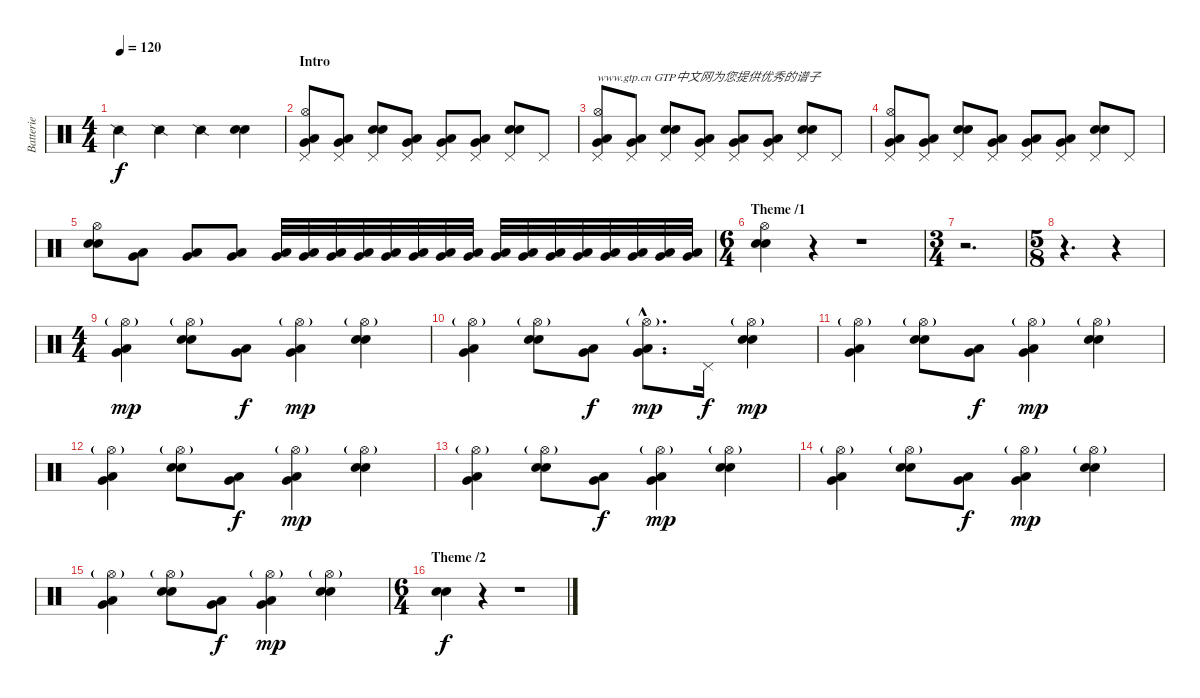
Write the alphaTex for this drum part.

\track ("Batterie" "Batterie") {instrument percussion}
\staff {score}
\articulation defaults
\ts (4 4)
\tempo 120
\clef neutral
\ks c "Snare (side stick) 2".4{dy f} "Snare (side stick) 2".4 "Snare (side stick) 2".4
("Electric Snare (hit)" "Electric Snare (hit)").4 |
\section ("" "Intro")
("Pedal Hi-Hat (hit)" "Hi-Hat (open)" "Very Low Tom (hit)" "Low Floor Tom (hit)").8 ("Pedal Hi-Hat (hit)" "Very Low Tom (hit)" "Low Floor Tom (hit)").8 ("Pedal Hi-Hat (hit)" "Electric Snare (hit)" "Electric Snare (hit)").8 ("Pedal Hi-Hat (hit)" "Very Low Tom (hit)" "Low Floor Tom (hit)").8 ("Pedal Hi-Hat (hit)" "Very Low Tom (hit)" "Low Floor Tom (hit)").8 ("Pedal Hi-Hat (hit)" "Very Low Tom (hit)" "Low Floor Tom (hit)").8 ("Pedal Hi-Hat (hit)" "Electric Snare (hit)" "Electric Snare (hit)").8 "Pedal Hi-Hat (hit)".8 |
("Pedal Hi-Hat (hit)" "Hi-Hat (open)" "Very Low Tom (hit)" "Low Floor Tom (hit)").8{txt "www.gtp.cn GTP中文网为您提供优秀的谱子"} ("Pedal Hi-Hat (hit)" "Very Low Tom (hit)" "Low Floor Tom (hit)").8 ("Pedal Hi-Hat (hit)" "Electric Snare (hit)" "Electric Snare (hit)").8 ("Pedal Hi-Hat (hit)" "Very Low Tom (hit)" "Low Floor Tom (hit)").8 ("Pedal Hi-Hat (hit)" "Very Low Tom (hit)" "Low Floor Tom (hit)").8 ("Pedal Hi-Hat (hit)" "Very Low Tom (hit)" "Low Floor Tom (hit)").8 ("Pedal Hi-Hat (hit)" "Electric Snare (hit)" "Electric Snare (hit)").8 "Pedal Hi-Hat (hit)".8 |
("Pedal Hi-Hat (hit)" "Hi-Hat (open)" "Very Low Tom (hit)" "Low Floor Tom (hit)").8 ("Pedal Hi-Hat (hit)" "Very Low Tom (hit)" "Low Floor Tom (hit)").8 ("Pedal Hi-Hat (hit)" "Electric Snare (hit)" "Electric Snare (hit)").8 ("Pedal Hi-Hat (hit)" "Very Low Tom (hit)" "Low Floor Tom (hit)").8 ("Pedal Hi-Hat (hit)" "Very Low Tom (hit)" "Low Floor Tom (hit)").8 ("Pedal Hi-Hat (hit)" "Very Low Tom (hit)" "Low Floor Tom (hit)").8 ("Pedal Hi-Hat (hit)" "Electric Snare (hit)" "Electric Snare (hit)").8 "Pedal Hi-Hat (hit)".8 |
("Hi-Hat (open)" "Electric Snare (hit)" "Electric Snare (hit)").8 ("Very Low Tom (hit)" "Low Floor Tom (hit)").8 ("Very Low Tom (hit)" "Low Floor Tom (hit)").8 ("Very Low Tom (hit)" "Low Floor Tom (hit)").8 ("Very Low Tom (hit)" "Low Floor Tom (hit)").32 ("Very Low Tom (hit)" "Low Floor Tom (hit)").32 ("Very Low Tom (hit)" "Low Floor Tom (hit)").32 ("Very Low Tom (hit)" "Low Floor Tom (hit)").32 ("Very Low Tom (hit)" "Low Floor Tom (hit)").32 ("Very Low Tom (hit)" "Low Floor Tom (hit)").32 ("Very Low Tom (hit)" "Low Floor Tom (hit)").32 ("Very Low Tom (hit)" "Low Floor Tom (hit)").32 ("Very Low Tom (hit)" "Low Floor Tom (hit)").32 ("Very Low Tom (hit)" "Low Floor Tom (hit)").32 ("Very Low Tom (hit)" "Low Floor Tom (hit)").32 ("Very Low Tom (hit)" "Low Floor Tom (hit)").32 ("Very Low Tom (hit)" "Low Floor Tom (hit)").32 ("Very Low Tom (hit)" "Low Floor Tom (hit)").32 ("Very Low Tom (hit)" "Low Floor Tom (hit)").32 ("Very Low Tom (hit)" "Low Floor Tom (hit)").32 |
\ts (6 4)
\section ("" "Theme /1")
("Hi-Hat (open)" "Electric Snare (hit)" "Electric Snare (hit)").4 r.4 r.1 |
\ts (3 4)
r.2{d} |
\ts (5 8)
r.4{d} r.4 |
\ts (4 4)
("Hi-Hat (open)"{g} "Very Low Tom (hit)" "Low Floor Tom (hit)").4{dy mp} ("Hi-Hat (open)"{g} "Electric Snare (hit)" "Electric Snare (hit)").8 ("Very Low Tom (hit)" "Low Floor Tom (hit)").8{dy f} ("Hi-Hat (open)"{g} "Very Low Tom (hit)" "Low Floor Tom (hit)").4{dy mp} ("Hi-Hat (open)"{g} "Electric Snare (hit)" "Electric Snare (hit)").4 |
("Hi-Hat (open)"{g} "Very Low Tom (hit)" "Low Floor Tom (hit)").4 ("Hi-Hat (open)"{g} "Electric Snare (hit)" "Electric Snare (hit)").8 ("Very Low Tom (hit)" "Low Floor Tom (hit)").8{dy f} ("Hi-Hat (open)"{g hac} "Very Low Tom (hit)"{hac} "Low Floor Tom (hit)"{hac}).8{d dy mp} "Pedal Hi-Hat (hit)".16{dy f} ("Hi-Hat (open)"{g} "Electric Snare (hit)" "Electric Snare (hit)").4{dy mp} |
("Hi-Hat (open)"{g} "Very Low Tom (hit)" "Low Floor Tom (hit)").4 ("Hi-Hat (open)"{g} "Electric Snare (hit)" "Electric Snare (hit)").8 ("Very Low Tom (hit)" "Low Floor Tom (hit)").8{dy f} ("Hi-Hat (open)"{g} "Very Low Tom (hit)" "Low Floor Tom (hit)").4{dy mp} ("Hi-Hat (open)"{g} "Electric Snare (hit)" "Electric Snare (hit)").4 |
("Hi-Hat (open)"{g} "Very Low Tom (hit)" "Low Floor Tom (hit)").4 ("Hi-Hat (open)"{g} "Electric Snare (hit)" "Electric Snare (hit)").8 ("Very Low Tom (hit)" "Low Floor Tom (hit)").8{dy f} ("Hi-Hat (open)"{g} "Very Low Tom (hit)" "Low Floor Tom (hit)").4{dy mp} ("Hi-Hat (open)"{g} "Electric Snare (hit)" "Electric Snare (hit)").4 |
("Hi-Hat (open)"{g} "Very Low Tom (hit)" "Low Floor Tom (hit)").4 ("Hi-Hat (open)"{g} "Electric Snare (hit)" "Electric Snare (hit)").8 ("Very Low Tom (hit)" "Low Floor Tom (hit)").8{dy f} ("Hi-Hat (open)"{g} "Very Low Tom (hit)" "Low Floor Tom (hit)").4{dy mp} ("Hi-Hat (open)"{g} "Electric Snare (hit)" "Electric Snare (hit)").4 |
("Hi-Hat (open)"{g} "Very Low Tom (hit)" "Low Floor Tom (hit)").4 ("Hi-Hat (open)"{g} "Electric Snare (hit)" "Electric Snare (hit)").8 ("Very Low Tom (hit)" "Low Floor Tom (hit)").8{dy f} ("Hi-Hat (open)"{g} "Very Low Tom (hit)" "Low Floor Tom (hit)").4{dy mp} ("Hi-Hat (open)"{g} "Electric Snare (hit)" "Electric Snare (hit)").4 |
("Hi-Hat (open)"{g} "Very Low Tom (hit)" "Low Floor Tom (hit)").4 ("Hi-Hat (open)"{g} "Electric Snare (hit)" "Electric Snare (hit)").8 ("Very Low Tom (hit)" "Low Floor Tom (hit)").8{dy f} ("Hi-Hat (open)"{g} "Very Low Tom (hit)" "Low Floor Tom (hit)").4{dy mp} ("Hi-Hat (open)"{g} "Electric Snare (hit)" "Electric Snare (hit)").4 |
\ts (6 4)
\section ("" "Theme /2")
("Electric Snare (hit)" "Electric Snare (hit)").4{dy f} r.4 r.1
